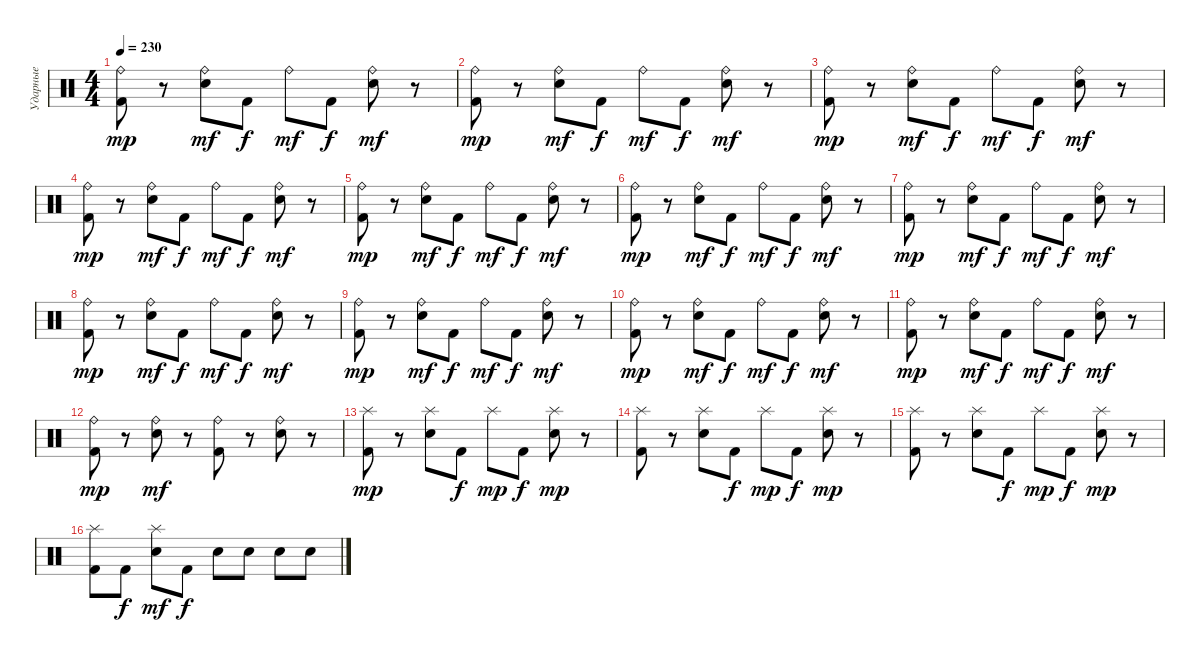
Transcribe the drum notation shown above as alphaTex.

\track ("Ударные" "Ударные") {instrument percussion}
\staff {score}
\articulation defaults
\ts (4 4)
\tempo 230
\clef neutral
\ks c
("Ride (bell)" "Kick (hit) 2").8{dy mp} r.8 ("Ride (bell)" "Snare (hit) 2").8{dy mf} "Kick (hit) 2".8{dy f} "Ride (bell)".8{dy mf} "Kick (hit) 2".8{dy f} ("Ride (bell)" "Snare (hit) 2").8{dy mf} r.8 |
("Ride (bell)" "Kick (hit) 2").8{dy mp} r.8 ("Ride (bell)" "Snare (hit) 2").8{dy mf} "Kick (hit) 2".8{dy f} "Ride (bell)".8{dy mf} "Kick (hit) 2".8{dy f} ("Ride (bell)" "Snare (hit) 2").8{dy mf} r.8 |
("Ride (bell)" "Kick (hit) 2").8{dy mp} r.8 ("Ride (bell)" "Snare (hit) 2").8{dy mf} "Kick (hit) 2".8{dy f} "Ride (bell)".8{dy mf} "Kick (hit) 2".8{dy f} ("Ride (bell)" "Snare (hit) 2").8{dy mf} r.8 |
("Ride (bell)" "Kick (hit) 2").8{dy mp} r.8 ("Ride (bell)" "Snare (hit) 2").8{dy mf} "Kick (hit) 2".8{dy f} "Ride (bell)".8{dy mf} "Kick (hit) 2".8{dy f} ("Ride (bell)" "Snare (hit) 2").8{dy mf} r.8 |
("Ride (bell)" "Kick (hit) 2").8{dy mp} r.8 ("Ride (bell)" "Snare (hit) 2").8{dy mf} "Kick (hit) 2".8{dy f} "Ride (bell)".8{dy mf} "Kick (hit) 2".8{dy f} ("Ride (bell)" "Snare (hit) 2").8{dy mf} r.8 |
("Ride (bell)" "Kick (hit) 2").8{dy mp} r.8 ("Ride (bell)" "Snare (hit) 2").8{dy mf} "Kick (hit) 2".8{dy f} "Ride (bell)".8{dy mf} "Kick (hit) 2".8{dy f} ("Ride (bell)" "Snare (hit) 2").8{dy mf} r.8 |
("Ride (bell)" "Kick (hit) 2").8{dy mp} r.8 ("Ride (bell)" "Snare (hit) 2").8{dy mf} "Kick (hit) 2".8{dy f} "Ride (bell)".8{dy mf} "Kick (hit) 2".8{dy f} ("Ride (bell)" "Snare (hit) 2").8{dy mf} r.8 |
("Ride (bell)" "Kick (hit) 2").8{dy mp} r.8 ("Ride (bell)" "Snare (hit) 2").8{dy mf} "Kick (hit) 2".8{dy f} "Ride (bell)".8{dy mf} "Kick (hit) 2".8{dy f} ("Ride (bell)" "Snare (hit) 2").8{dy mf} r.8 |
("Ride (bell)" "Kick (hit) 2").8{dy mp} r.8 ("Ride (bell)" "Snare (hit) 2").8{dy mf} "Kick (hit) 2".8{dy f} "Ride (bell)".8{dy mf} "Kick (hit) 2".8{dy f} ("Ride (bell)" "Snare (hit) 2").8{dy mf} r.8 |
("Ride (bell)" "Kick (hit) 2").8{dy mp} r.8 ("Ride (bell)" "Snare (hit) 2").8{dy mf} "Kick (hit) 2".8{dy f} "Ride (bell)".8{dy mf} "Kick (hit) 2".8{dy f} ("Ride (bell)" "Snare (hit) 2").8{dy mf} r.8 |
("Ride (bell)" "Kick (hit) 2").8{dy mp} r.8 ("Ride (bell)" "Snare (hit) 2").8{dy mf} "Kick (hit) 2".8{dy f} "Ride (bell)".8{dy mf} "Kick (hit) 2".8{dy f} ("Ride (bell)" "Snare (hit) 2").8{dy mf} r.8 |
("Ride (bell)" "Kick (hit) 2").8{dy mp} r.8 ("Ride (bell)" "Snare (hit) 2").8{dy mf} r.8 ("Kick (hit) 2" "Ride (bell)").8 r.8 ("Ride (bell)" "Snare (hit) 2").8 r.8 |
("Splash (hit)" "Kick (hit) 2").8{dy mp} r.8 ("Splash (hit)" "Snare (hit) 2").8 "Kick (hit) 2".8{dy f} "Splash (hit)".8{dy mp} "Kick (hit) 2".8{dy f} ("Splash (hit)" "Snare (hit) 2").8{dy mp} r.8 |
("Splash (hit)" "Kick (hit) 2").8 r.8 ("Splash (hit)" "Snare (hit) 2").8 "Kick (hit) 2".8{dy f} "Splash (hit)".8{dy mp} "Kick (hit) 2".8{dy f} ("Splash (hit)" "Snare (hit) 2").8{dy mp} r.8 |
("Splash (hit)" "Kick (hit) 2").8 r.8 ("Splash (hit)" "Snare (hit) 2").8 "Kick (hit) 2".8{dy f} "Splash (hit)".8{dy mp} "Kick (hit) 2".8{dy f} ("Splash (hit)" "Snare (hit) 2").8{dy mp} r.8 |
("Splash (hit)" "Kick (hit) 2").8 "Kick (hit) 2".8{dy f} ("Splash (hit)" "Snare (hit) 2").8{dy mf} "Kick (hit) 2".8{dy f} "Snare (hit) 2".8 "Snare (hit) 2".8 "Snare (hit) 2".8 "Snare (hit) 2".8
